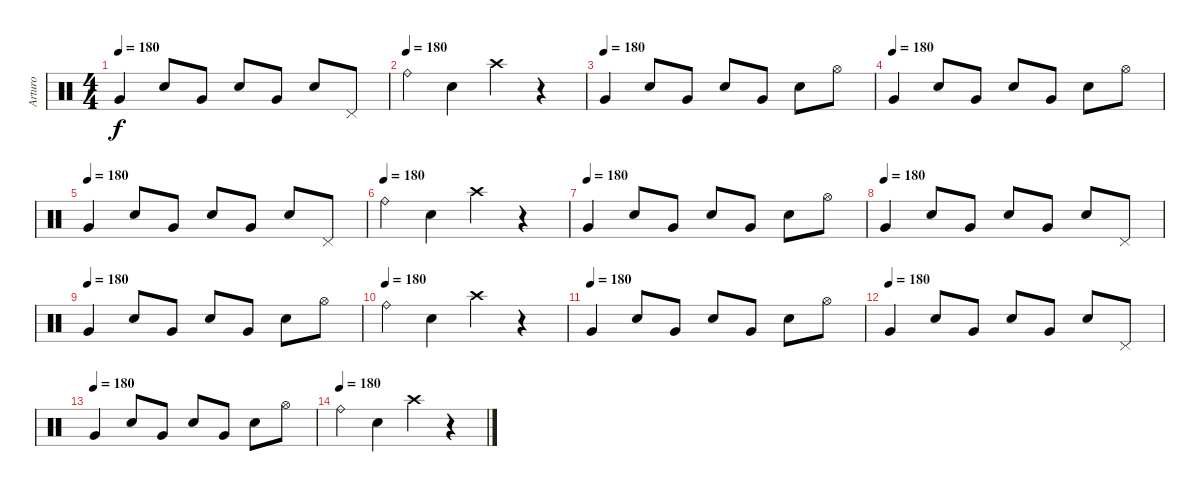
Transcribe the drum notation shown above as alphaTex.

\track ("Arturo" "Arturo") {instrument percussion}
\staff {score}
\articulation defaults
\ts (4 4)
\tempo 180
\clef neutral
\ks c "Very Low Tom (hit)".4{dy f} "Electric Snare (hit)".8 "Very Low Tom (hit)".8 "Electric Snare (hit)".8 "Very Low Tom (hit)".8 "Electric Snare (hit)".8 "Pedal Hi-Hat (hit)".8
|
\tempo (180)
"Ride (bell)".4 "Electric Snare (hit)".4 "Crash high (hit)".4 r.4 |
\tempo (180)
"Very Low Tom (hit)".4 "Electric Snare (hit)".8 "Very Low Tom (hit)".8 "Electric Snare (hit)".8 "Very Low Tom (hit)".8 "Electric Snare (hit)".8 "Hi-Hat (open)".8 |
\tempo (180)
"Very Low Tom (hit)".4 "Electric Snare (hit)".8 "Very Low Tom (hit)".8 "Electric Snare (hit)".8 "Very Low Tom (hit)".8 "Electric Snare (hit)".8 "Hi-Hat (open)".8 |
\tempo (180)
"Very Low Tom (hit)".4 "Electric Snare (hit)".8 "Very Low Tom (hit)".8 "Electric Snare (hit)".8 "Very Low Tom (hit)".8 "Electric Snare (hit)".8 "Pedal Hi-Hat (hit)".8 |
\tempo (180)
"Ride (bell)".4 "Electric Snare (hit)".4 "Crash high (hit)".4 r.4 |
\tempo (180)
"Very Low Tom (hit)".4 "Electric Snare (hit)".8 "Very Low Tom (hit)".8 "Electric Snare (hit)".8 "Very Low Tom (hit)".8 "Electric Snare (hit)".8 "Hi-Hat (open)".8 |
\tempo (180)
"Very Low Tom (hit)".4 "Electric Snare (hit)".8 "Very Low Tom (hit)".8 "Electric Snare (hit)".8 "Very Low Tom (hit)".8 "Electric Snare (hit)".8 "Pedal Hi-Hat (hit)".8 |
\tempo (180)
"Very Low Tom (hit)".4 "Electric Snare (hit)".8 "Very Low Tom (hit)".8 "Electric Snare (hit)".8 "Very Low Tom (hit)".8 "Electric Snare (hit)".8 "Hi-Hat (open)".8 |
\tempo (180)
"Ride (bell)".4 "Electric Snare (hit)".4 "Crash high (hit)".4 r.4 |
\tempo (180)
"Very Low Tom (hit)".4 "Electric Snare (hit)".8 "Very Low Tom (hit)".8 "Electric Snare (hit)".8 "Very Low Tom (hit)".8 "Electric Snare (hit)".8 "Hi-Hat (open)".8 |
\tempo (180)
"Very Low Tom (hit)".4 "Electric Snare (hit)".8 "Very Low Tom (hit)".8 "Electric Snare (hit)".8 "Very Low Tom (hit)".8 "Electric Snare (hit)".8 "Pedal Hi-Hat (hit)".8 |
\tempo (180)
"Very Low Tom (hit)".4 "Electric Snare (hit)".8 "Very Low Tom (hit)".8 "Electric Snare (hit)".8 "Very Low Tom (hit)".8 "Electric Snare (hit)".8 "Hi-Hat (open)".8 |
\tempo (180)
"Ride (bell)".4 "Electric Snare (hit)".4 "Crash high (hit)".4 r.4
